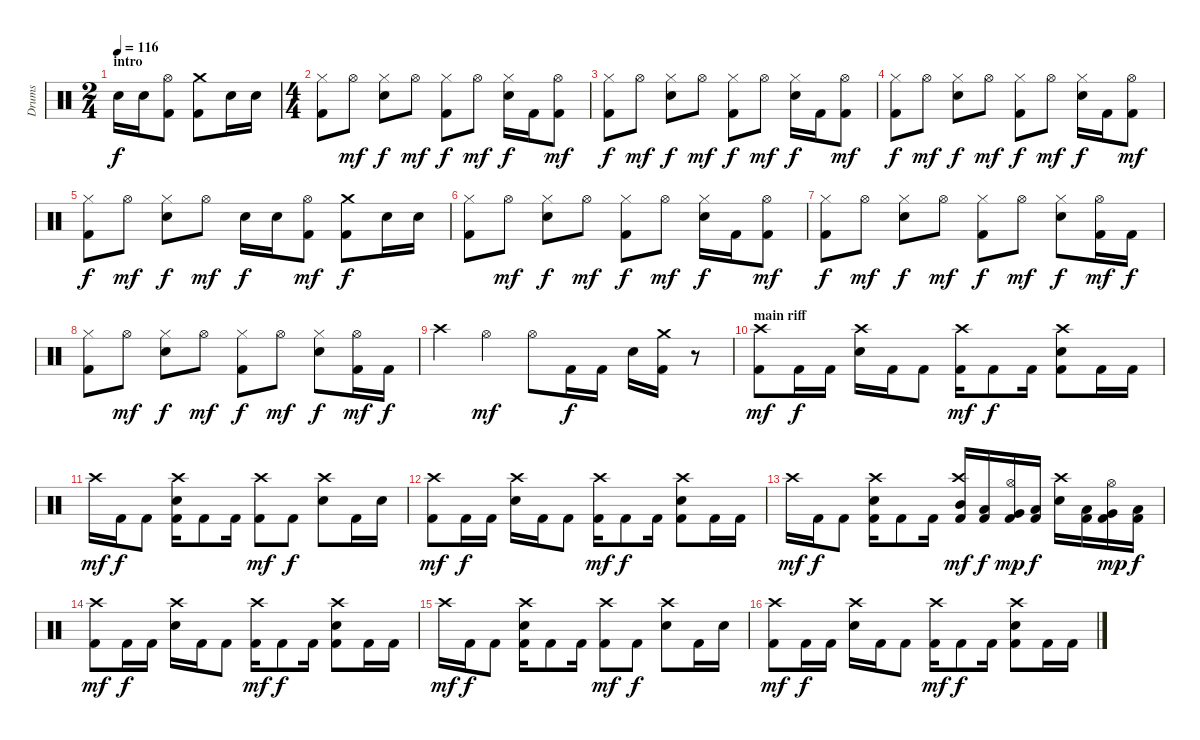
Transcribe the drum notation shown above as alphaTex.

\track ("Drums" "Drums") {instrument percussion}
\staff {score}
\articulation defaults
\ts (2 4)
\section ("" "intro")
\tempo 116
\clef neutral
\ks c "Electric Snare (hit)".16{dy f} "Electric Snare (hit)".16
("Kick (hit) 2" "Hi-Hat (open)").8 ("Kick (hit) 2" "Crash medium (hit)").8 "Electric Snare (hit)".16 "Electric Snare (hit)".16 |
\ts (4 4)
("Kick (hit) 2" "Hi-Hat (closed)").8 "Hi-Hat (open)".8{dy mf} ("Hi-Hat (closed)" "Electric Snare (hit)").8{dy f} "Hi-Hat (open)".8{dy mf} ("Kick (hit) 2" "Hi-Hat (closed)").8{dy f} "Hi-Hat (open)".8{dy mf} ("Hi-Hat (closed)" "Electric Snare (hit)").16{dy f} "Kick (hit) 2".16 ("Kick (hit) 2" "Hi-Hat (open)").8{dy mf} |
("Kick (hit) 2" "Hi-Hat (closed)").8{dy f} "Hi-Hat (open)".8{dy mf} ("Hi-Hat (closed)" "Electric Snare (hit)").8{dy f} "Hi-Hat (open)".8{dy mf} ("Kick (hit) 2" "Hi-Hat (closed)").8{dy f} "Hi-Hat (open)".8{dy mf} ("Hi-Hat (closed)" "Electric Snare (hit)").16{dy f} "Kick (hit) 2".16 ("Kick (hit) 2" "Hi-Hat (open)").8{dy mf} |
("Kick (hit) 2" "Hi-Hat (closed)").8{dy f} "Hi-Hat (open)".8{dy mf} ("Hi-Hat (closed)" "Electric Snare (hit)").8{dy f} "Hi-Hat (open)".8{dy mf} ("Kick (hit) 2" "Hi-Hat (closed)").8{dy f} "Hi-Hat (open)".8{dy mf} ("Hi-Hat (closed)" "Electric Snare (hit)").16{dy f} "Kick (hit) 2".16 ("Kick (hit) 2" "Hi-Hat (open)").8{dy mf} |
("Kick (hit) 2" "Hi-Hat (closed)").8{dy f} "Hi-Hat (open)".8{dy mf} ("Hi-Hat (closed)" "Electric Snare (hit)").8{dy f} "Hi-Hat (open)".8{dy mf} "Electric Snare (hit)".16{dy f} "Electric Snare (hit)".16 ("Kick (hit) 2" "Hi-Hat (open)").8{dy mf} ("Kick (hit) 2" "Crash medium (hit)").8{dy f} "Electric Snare (hit)".16 "Electric Snare (hit)".16 |
("Kick (hit) 2" "Hi-Hat (closed)").8 "Hi-Hat (open)".8{dy mf} ("Hi-Hat (closed)" "Electric Snare (hit)").8{dy f} "Hi-Hat (open)".8{dy mf} ("Kick (hit) 2" "Hi-Hat (closed)").8{dy f} "Hi-Hat (open)".8{dy mf} ("Hi-Hat (closed)" "Electric Snare (hit)").16{dy f} "Kick (hit) 2".16 ("Kick (hit) 2" "Hi-Hat (open)").8{dy mf} |
("Kick (hit) 2" "Hi-Hat (closed)").8{dy f} "Hi-Hat (open)".8{dy mf} ("Hi-Hat (closed)" "Electric Snare (hit)").8{dy f} "Hi-Hat (open)".8{dy mf} ("Kick (hit) 2" "Hi-Hat (closed)").8{dy f} "Hi-Hat (open)".8{dy mf} ("Hi-Hat (closed)" "Electric Snare (hit)").8{dy f} ("Kick (hit) 2" "Hi-Hat (open)").16{dy mf} "Kick (hit) 2".16{dy f} |
("Kick (hit) 2" "Hi-Hat (closed)").8 "Hi-Hat (open)".8{dy mf} ("Hi-Hat (closed)" "Electric Snare (hit)").8{dy f} "Hi-Hat (open)".8{dy mf} ("Kick (hit) 2" "Hi-Hat (closed)").8{dy f} "Hi-Hat (open)".8{dy mf} ("Hi-Hat (closed)" "Electric Snare (hit)").8{dy f} ("Kick (hit) 2" "Hi-Hat (open)").16{dy mf} "Kick (hit) 2".16{dy f} |
"Crash high (hit)".4 "Hi-Hat (open)".4{dy mf} "Hi-Hat (open)".8 "Kick (hit) 2".16{dy f} "Kick (hit) 2".16 "Electric Snare (hit)".16 ("Kick (hit) 2" "Crash medium (hit)").16 r.8 |
\section ("" "main riff")
("Kick (hit) 2" "Crash high (hit)").8{dy mf} "Kick (hit) 2".16{dy f} "Kick (hit) 2".16 ("Crash high (hit)" "Electric Snare (hit)").16 "Kick (hit) 2".16 "Kick (hit) 2".8 ("Kick (hit) 2" "Crash high (hit)").16{dy mf} "Kick (hit) 2".8{dy f} "Kick (hit) 2".16 ("Kick (hit) 2" "Crash high (hit)" "Electric Snare (hit)").8 "Kick (hit) 2".16 "Kick (hit) 2".16 |
"Crash high (hit)".16{dy mf} "Kick (hit) 2".16{dy f} "Kick (hit) 2".8 ("Kick (hit) 2" "Crash high (hit)" "Electric Snare (hit)").16 "Kick (hit) 2".8 "Kick (hit) 2".16 ("Kick (hit) 2" "Crash high (hit)").8{dy mf} "Kick (hit) 2".8{dy f} ("Crash high (hit)" "Electric Snare (hit)").8 "Kick (hit) 2".16 "Electric Snare (hit)".16 |
("Kick (hit) 2" "Crash high (hit)").8{dy mf} "Kick (hit) 2".16{dy f} "Kick (hit) 2".16 ("Crash high (hit)" "Electric Snare (hit)").16 "Kick (hit) 2".16 "Kick (hit) 2".8 ("Kick (hit) 2" "Crash high (hit)").16{dy mf} "Kick (hit) 2".8{dy f} "Kick (hit) 2".16 ("Kick (hit) 2" "Crash high (hit)" "Electric Snare (hit)").8 "Kick (hit) 2".16 "Kick (hit) 2".16 |
"Crash high (hit)".16{dy mf} "Kick (hit) 2".16{dy f} "Kick (hit) 2".8 ("Kick (hit) 2" "Crash high (hit)" "Electric Snare (hit)").16 "Kick (hit) 2".8 "Kick (hit) 2".16 ("Kick (hit) 2" "Crash high (hit)" "Mid Tom (hit)").16{dy mf} ("Kick (hit) 2" "Low Tom (hit)").16{dy f} ("Kick (hit) 2" "Very Low Tom (hit)" "Hi-Hat (open)").16{dy mp} ("Kick (hit) 2" "Low Floor Tom (hit)").16{dy f} ("Crash high (hit)" "Electric Snare (hit)").16 ("Kick (hit) 2" "Low Tom (hit)").16 ("Kick (hit) 2" "Very Low Tom (hit)" "Hi-Hat (open)").16{dy mp} ("Kick (hit) 2" "Low Floor Tom (hit)").16{dy f} |
("Kick (hit) 2" "Crash high (hit)").8{dy mf} "Kick (hit) 2".16{dy f} "Kick (hit) 2".16 ("Crash high (hit)" "Electric Snare (hit)").16 "Kick (hit) 2".16 "Kick (hit) 2".8 ("Kick (hit) 2" "Crash high (hit)").16{dy mf} "Kick (hit) 2".8{dy f} "Kick (hit) 2".16 ("Kick (hit) 2" "Crash high (hit)" "Electric Snare (hit)").8 "Kick (hit) 2".16 "Kick (hit) 2".16 |
"Crash high (hit)".16{dy mf} "Kick (hit) 2".16{dy f} "Kick (hit) 2".8 ("Kick (hit) 2" "Crash high (hit)" "Electric Snare (hit)").16 "Kick (hit) 2".8 "Kick (hit) 2".16 ("Kick (hit) 2" "Crash high (hit)").8{dy mf} "Kick (hit) 2".8{dy f} ("Crash high (hit)" "Electric Snare (hit)").8 "Kick (hit) 2".16 "Electric Snare (hit)".16 |
("Kick (hit) 2" "Crash high (hit)").8{dy mf} "Kick (hit) 2".16{dy f} "Kick (hit) 2".16 ("Crash high (hit)" "Electric Snare (hit)").16 "Kick (hit) 2".16 "Kick (hit) 2".8 ("Kick (hit) 2" "Crash high (hit)").16{dy mf} "Kick (hit) 2".8{dy f} "Kick (hit) 2".16 ("Kick (hit) 2" "Crash high (hit)" "Electric Snare (hit)").8 "Kick (hit) 2".16 "Kick (hit) 2".16
